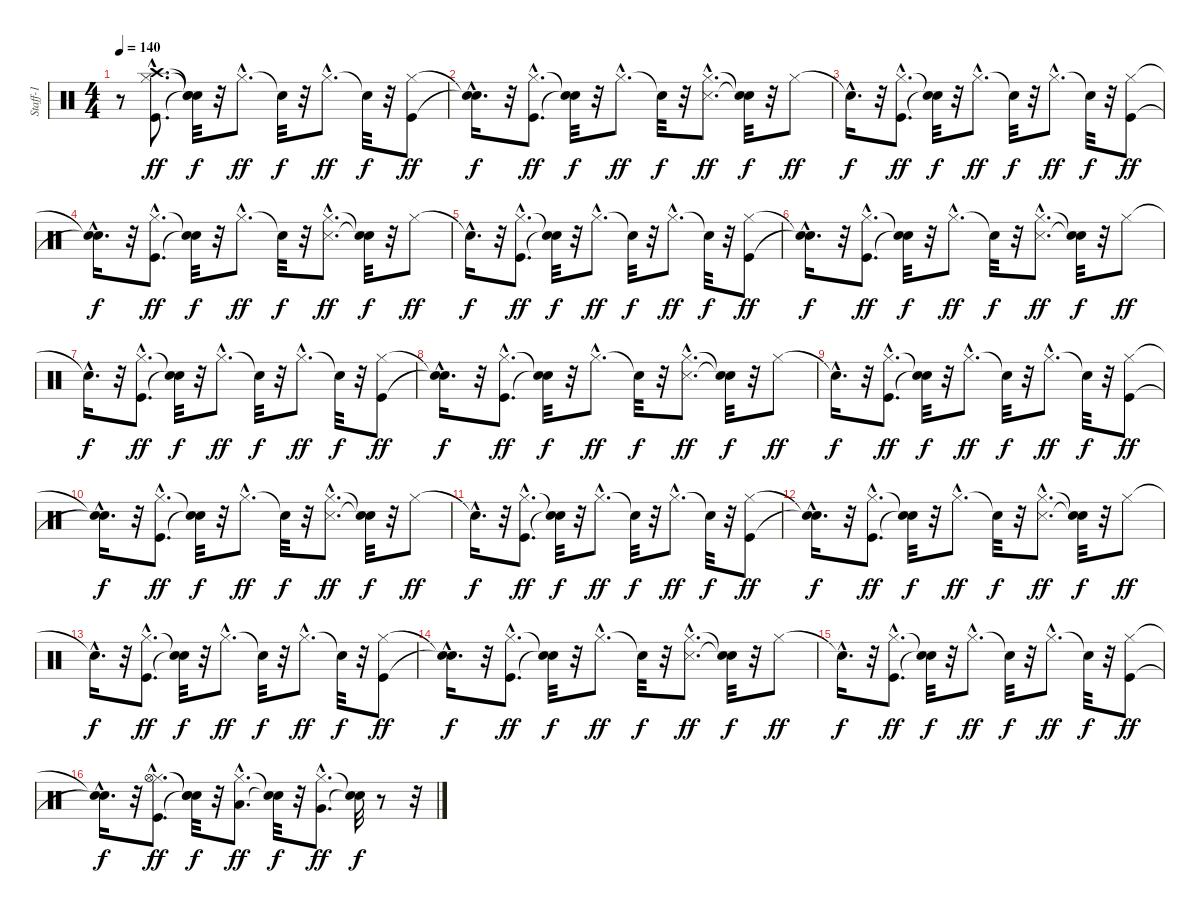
\track ("Staff-1" "Staff-1") {instrument percussion}
\staff {score}
\articulation defaults
\ts (4 4)
\tempo 140
\clef neutral
\ks c
r.8{dy ff} ("Kick (hit)"{hac} "Hi-Hat (closed)"{hac} "Crash high (hit)"{hac}).8{d volume 12} ("Snare (hit)"{t} "Snare (hit)"{t} "Snare (hit)"{t}).32{dy f} r.32 "Hi-Hat (closed)"{hac}.8{d dy ff volume 12} "Snare (hit)"{t}.32{dy f} r.32 "Hi-Hat (closed)"{hac}.8{d dy ff volume 13} "Snare (hit)"{t}.32{dy f} r.32 ("Kick (hit)" "Hi-Hat (closed)").8{dy ff volume 13} |
("Snare (hit)"{hac t} "Snare (hit)"{hac t}).16{d dy f} r.32 ("Kick (hit)"{hac} "Hi-Hat (closed)"{hac}).8{d dy ff volume 14} ("Snare (hit)"{t} "Snare (hit)"{t}).32{dy f} r.32 "Hi-Hat (closed)"{hac}.8{d dy ff volume 14} "Snare (hit)"{t}.32{dy f} r.32 ("Snare (side stick) 3"{hac} "Hi-Hat (closed)"{hac}).8{d dy ff volume 15} ("Snare (hit)"{t} "Snare (hit)"{t}).32{dy f} r.32 "Hi-Hat (closed)".8{dy ff volume 15} |
"Snare (hit)"{hac t}.16{d dy f} r.32 ("Kick (hit)"{hac} "Hi-Hat (closed)"{hac}).8{d dy ff volume 16} ("Snare (hit)"{t} "Snare (hit)"{t}).32{dy f} r.32 "Hi-Hat (closed)"{hac}.8{d dy ff} "Snare (hit)"{t}.32{dy f} r.32 "Hi-Hat (closed)"{hac}.8{d dy ff} "Snare (hit)"{t}.32{dy f} r.32 ("Kick (hit)" "Hi-Hat (closed)").8{dy ff} |
("Snare (hit)"{hac t} "Snare (hit)"{hac t}).16{d dy f} r.32 ("Kick (hit)"{hac} "Hi-Hat (closed)"{hac}).8{d dy ff} ("Snare (hit)"{t} "Snare (hit)"{t}).32{dy f} r.32 "Hi-Hat (closed)"{hac}.8{d dy ff} "Snare (hit)"{t}.32{dy f} r.32 ("Snare (side stick) 3"{hac} "Hi-Hat (closed)"{hac}).8{d dy ff} ("Snare (hit)"{t} "Snare (hit)"{t}).32{dy f} r.32 "Hi-Hat (closed)".8{dy ff} |
"Snare (hit)"{hac t}.16{d dy f} r.32 ("Kick (hit)"{hac} "Hi-Hat (closed)"{hac}).8{d dy ff} ("Snare (hit)"{t} "Snare (hit)"{t}).32{dy f} r.32 "Hi-Hat (closed)"{hac}.8{d dy ff} "Snare (hit)"{t}.32{dy f} r.32 "Hi-Hat (closed)"{hac}.8{d dy ff} "Snare (hit)"{t}.32{dy f} r.32 ("Kick (hit)" "Hi-Hat (closed)").8{dy ff} |
("Snare (hit)"{hac t} "Snare (hit)"{hac t}).16{d dy f} r.32 ("Kick (hit)"{hac} "Hi-Hat (closed)"{hac}).8{d dy ff} ("Snare (hit)"{t} "Snare (hit)"{t}).32{dy f} r.32 "Hi-Hat (closed)"{hac}.8{d dy ff} "Snare (hit)"{t}.32{dy f} r.32 ("Snare (side stick) 3"{hac} "Hi-Hat (closed)"{hac}).8{d dy ff} ("Snare (hit)"{t} "Snare (hit)"{t}).32{dy f} r.32 "Hi-Hat (closed)".8{dy ff} |
"Snare (hit)"{hac t}.16{d dy f} r.32 ("Kick (hit)"{hac} "Hi-Hat (closed)"{hac}).8{d dy ff} ("Snare (hit)"{t} "Snare (hit)"{t}).32{dy f} r.32 "Hi-Hat (closed)"{hac}.8{d dy ff} "Snare (hit)"{t}.32{dy f} r.32 "Hi-Hat (closed)"{hac}.8{d dy ff} "Snare (hit)"{t}.32{dy f} r.32 ("Kick (hit)" "Hi-Hat (closed)").8{dy ff} |
("Snare (hit)"{hac t} "Snare (hit)"{hac t}).16{d dy f} r.32 ("Kick (hit)"{hac} "Hi-Hat (closed)"{hac}).8{d dy ff} ("Snare (hit)"{t} "Snare (hit)"{t}).32{dy f} r.32 "Hi-Hat (closed)"{hac}.8{d dy ff} "Snare (hit)"{t}.32{dy f} r.32 ("Snare (side stick) 3"{hac} "Hi-Hat (closed)"{hac}).8{d dy ff} ("Snare (hit)"{t} "Snare (hit)"{t}).32{dy f} r.32 "Hi-Hat (closed)".8{dy ff} |
"Snare (hit)"{hac t}.16{d dy f} r.32 ("Kick (hit)"{hac} "Hi-Hat (closed)"{hac}).8{d dy ff} ("Snare (hit)"{t} "Snare (hit)"{t}).32{dy f} r.32 "Hi-Hat (closed)"{hac}.8{d dy ff} "Snare (hit)"{t}.32{dy f} r.32 "Hi-Hat (closed)"{hac}.8{d dy ff} "Snare (hit)"{t}.32{dy f} r.32 ("Kick (hit)" "Hi-Hat (closed)").8{dy ff} |
("Snare (hit)"{hac t} "Snare (hit)"{hac t}).16{d dy f} r.32 ("Kick (hit)"{hac} "Hi-Hat (closed)"{hac}).8{d dy ff} ("Snare (hit)"{t} "Snare (hit)"{t}).32{dy f} r.32 "Hi-Hat (closed)"{hac}.8{d dy ff} "Snare (hit)"{t}.32{dy f} r.32 ("Snare (side stick) 3"{hac} "Hi-Hat (closed)"{hac}).8{d dy ff} ("Snare (hit)"{t} "Snare (hit)"{t}).32{dy f} r.32 "Hi-Hat (closed)".8{dy ff} |
"Snare (hit)"{hac t}.16{d dy f} r.32 ("Kick (hit)"{hac} "Hi-Hat (closed)"{hac}).8{d dy ff} ("Snare (hit)"{t} "Snare (hit)"{t}).32{dy f} r.32 "Hi-Hat (closed)"{hac}.8{d dy ff} "Snare (hit)"{t}.32{dy f} r.32 "Hi-Hat (closed)"{hac}.8{d dy ff} "Snare (hit)"{t}.32{dy f} r.32 ("Kick (hit)" "Hi-Hat (closed)").8{dy ff} |
("Snare (hit)"{hac t} "Snare (hit)"{hac t}).16{d dy f} r.32 ("Kick (hit)"{hac} "Hi-Hat (closed)"{hac}).8{d dy ff} ("Snare (hit)"{t} "Snare (hit)"{t}).32{dy f} r.32 "Hi-Hat (closed)"{hac}.8{d dy ff} "Snare (hit)"{t}.32{dy f} r.32 ("Snare (side stick) 3"{hac} "Hi-Hat (closed)"{hac}).8{d dy ff} ("Snare (hit)"{t} "Snare (hit)"{t}).32{dy f} r.32 "Hi-Hat (closed)".8{dy ff} |
"Snare (hit)"{hac t}.16{d dy f} r.32 ("Kick (hit)"{hac} "Hi-Hat (closed)"{hac}).8{d dy ff} ("Snare (hit)"{t} "Snare (hit)"{t}).32{dy f} r.32 "Hi-Hat (closed)"{hac}.8{d dy ff} "Snare (hit)"{t}.32{dy f} r.32 "Hi-Hat (closed)"{hac}.8{d dy ff} "Snare (hit)"{t}.32{dy f} r.32 ("Kick (hit)" "Hi-Hat (closed)").8{dy ff} |
("Snare (hit)"{hac t} "Snare (hit)"{hac t}).16{d dy f} r.32 ("Kick (hit)"{hac} "Hi-Hat (closed)"{hac}).8{d dy ff} ("Snare (hit)"{t} "Snare (hit)"{t}).32{dy f} r.32 "Hi-Hat (closed)"{hac}.8{d dy ff} "Snare (hit)"{t}.32{dy f} r.32 ("Snare (side stick) 3"{hac} "Hi-Hat (closed)"{hac}).8{d dy ff} ("Snare (hit)"{t} "Snare (hit)"{t}).32{dy f} r.32 "Hi-Hat (closed)".8{dy ff} |
"Snare (hit)"{hac t}.16{d dy f} r.32 ("Kick (hit)"{hac} "Hi-Hat (closed)"{hac}).8{d dy ff} ("Snare (hit)"{t} "Snare (hit)"{t}).32{dy f} r.32 "Hi-Hat (closed)"{hac}.8{d dy ff} "Snare (hit)"{t}.32{dy f} r.32 "Hi-Hat (closed)"{hac}.8{d dy ff} "Snare (hit)"{t}.32{dy f} r.32 ("Kick (hit)" "Hi-Hat (closed)").8{dy ff} |
("Snare (hit)"{hac t} "Snare (hit)"{hac t}).16{d dy f} r.32 ("Kick (hit)"{hac} "Hi-Hat (closed)"{hac} "Hi-Hat (open)"{hac}).8{d dy ff} ("Snare (hit)"{t} "Snare (hit)"{t} "Snare (hit)"{t}).32{dy f} r.32 ("Hi-Hat (closed)"{hac} "Low Tom (hit)"{hac}).8{d dy ff} ("Snare (hit)"{t} "Snare (hit)"{t}).32{dy f} r.32 ("Hi-Hat (closed)"{hac} "Very Low Tom (hit)"{hac}).8{d dy ff} ("Snare (hit)"{t} "Snare (hit)"{t}).32{dy f} r.8 r.32
